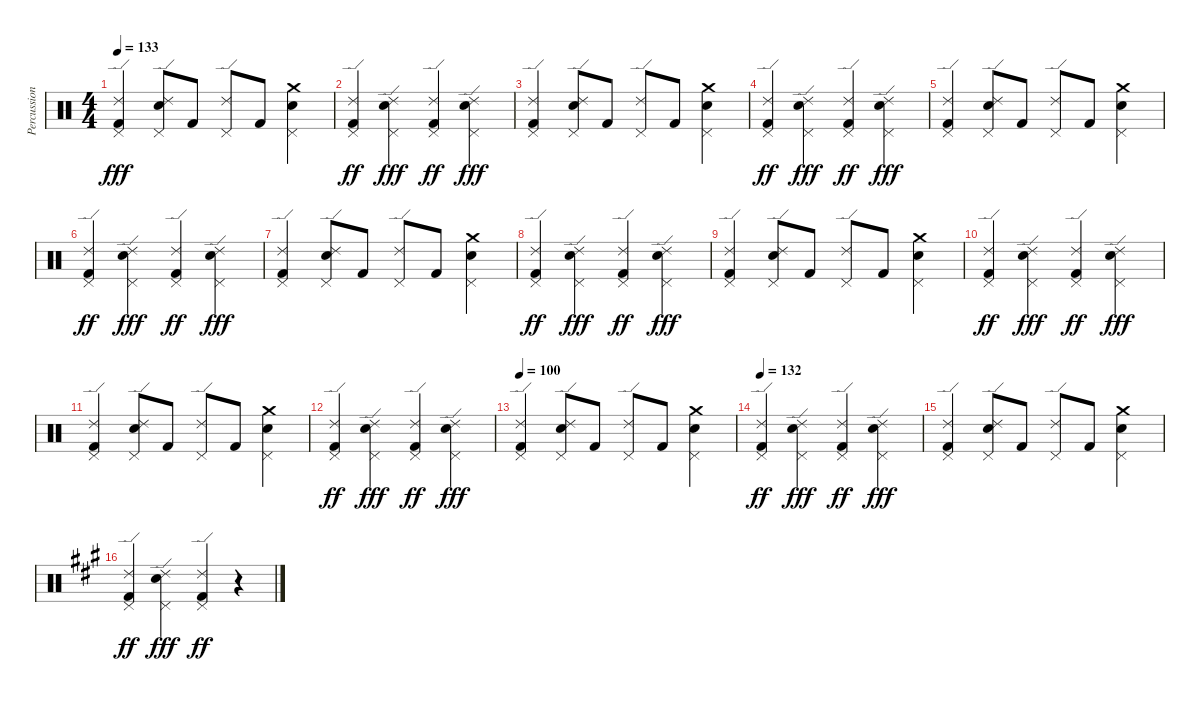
\track ("Percussion" "Percussion") {instrument percussion}
\staff {score}
\articulation defaults
\ts (4 4)
\tempo 133
\clef neutral
\ks c
("Ride (edge) 2" "Pedal Hi-Hat (hit)" "Kick (hit) 2").4{dy fff} ("Ride (edge) 2" "Electric Snare (hit)" "Pedal Hi-Hat (hit)").8 "Kick (hit) 2".8 ("Ride (edge) 2" "Pedal Hi-Hat (hit)").8 "Kick (hit) 2".8 ("Crash medium (hit)" "Electric Snare (hit)" "Pedal Hi-Hat (hit)").4 |
("Ride (edge) 2" "Pedal Hi-Hat (hit)" "Kick (hit) 2").4{dy ff} ("Ride (edge) 2" "Electric Snare (hit)" "Pedal Hi-Hat (hit)").4{dy fff} ("Ride (edge) 2" "Pedal Hi-Hat (hit)" "Kick (hit) 2").4{dy ff} ("Ride (edge) 2" "Electric Snare (hit)" "Pedal Hi-Hat (hit)").4{dy fff} |
("Ride (edge) 2" "Pedal Hi-Hat (hit)" "Kick (hit) 2").4 ("Ride (edge) 2" "Electric Snare (hit)" "Pedal Hi-Hat (hit)").8 "Kick (hit) 2".8 ("Ride (edge) 2" "Pedal Hi-Hat (hit)").8 "Kick (hit) 2".8 ("Crash medium (hit)" "Electric Snare (hit)" "Pedal Hi-Hat (hit)").4 |
("Ride (edge) 2" "Pedal Hi-Hat (hit)" "Kick (hit) 2").4{dy ff} ("Ride (edge) 2" "Electric Snare (hit)" "Pedal Hi-Hat (hit)").4{dy fff} ("Ride (edge) 2" "Pedal Hi-Hat (hit)" "Kick (hit) 2").4{dy ff} ("Ride (edge) 2" "Electric Snare (hit)" "Pedal Hi-Hat (hit)").4{dy fff} |
("Ride (edge) 2" "Pedal Hi-Hat (hit)" "Kick (hit) 2").4 ("Ride (edge) 2" "Electric Snare (hit)" "Pedal Hi-Hat (hit)").8 "Kick (hit) 2".8 ("Ride (edge) 2" "Pedal Hi-Hat (hit)").8 "Kick (hit) 2".8 ("Crash medium (hit)" "Electric Snare (hit)" "Pedal Hi-Hat (hit)").4 |
("Ride (edge) 2" "Pedal Hi-Hat (hit)" "Kick (hit) 2").4{dy ff} ("Ride (edge) 2" "Electric Snare (hit)" "Pedal Hi-Hat (hit)").4{dy fff} ("Ride (edge) 2" "Pedal Hi-Hat (hit)" "Kick (hit) 2").4{dy ff} ("Ride (edge) 2" "Electric Snare (hit)" "Pedal Hi-Hat (hit)").4{dy fff} |
("Ride (edge) 2" "Pedal Hi-Hat (hit)" "Kick (hit) 2").4 ("Ride (edge) 2" "Electric Snare (hit)" "Pedal Hi-Hat (hit)").8 "Kick (hit) 2".8 ("Ride (edge) 2" "Pedal Hi-Hat (hit)").8 "Kick (hit) 2".8 ("Crash medium (hit)" "Electric Snare (hit)" "Pedal Hi-Hat (hit)").4 |
("Ride (edge) 2" "Pedal Hi-Hat (hit)" "Kick (hit) 2").4{dy ff} ("Ride (edge) 2" "Electric Snare (hit)" "Pedal Hi-Hat (hit)").4{dy fff} ("Ride (edge) 2" "Pedal Hi-Hat (hit)" "Kick (hit) 2").4{dy ff} ("Ride (edge) 2" "Electric Snare (hit)" "Pedal Hi-Hat (hit)").4{dy fff} |
("Ride (edge) 2" "Pedal Hi-Hat (hit)" "Kick (hit) 2").4 ("Ride (edge) 2" "Electric Snare (hit)" "Pedal Hi-Hat (hit)").8 "Kick (hit) 2".8 ("Ride (edge) 2" "Pedal Hi-Hat (hit)").8 "Kick (hit) 2".8 ("Crash medium (hit)" "Electric Snare (hit)" "Pedal Hi-Hat (hit)").4 |
("Ride (edge) 2" "Pedal Hi-Hat (hit)" "Kick (hit) 2").4{dy ff} ("Ride (edge) 2" "Electric Snare (hit)" "Pedal Hi-Hat (hit)").4{dy fff} ("Ride (edge) 2" "Pedal Hi-Hat (hit)" "Kick (hit) 2").4{dy ff} ("Ride (edge) 2" "Electric Snare (hit)" "Pedal Hi-Hat (hit)").4{dy fff} |
("Ride (edge) 2" "Pedal Hi-Hat (hit)" "Kick (hit) 2").4 ("Ride (edge) 2" "Electric Snare (hit)" "Pedal Hi-Hat (hit)").8 "Kick (hit) 2".8 ("Ride (edge) 2" "Pedal Hi-Hat (hit)").8 "Kick (hit) 2".8 ("Crash medium (hit)" "Electric Snare (hit)" "Pedal Hi-Hat (hit)").4 |
("Ride (edge) 2" "Pedal Hi-Hat (hit)" "Kick (hit) 2").4{dy ff} ("Ride (edge) 2" "Electric Snare (hit)" "Pedal Hi-Hat (hit)").4{dy fff} ("Ride (edge) 2" "Pedal Hi-Hat (hit)" "Kick (hit) 2").4{dy ff} ("Ride (edge) 2" "Electric Snare (hit)" "Pedal Hi-Hat (hit)").4{dy fff} |
\tempo 100
("Ride (edge) 2" "Pedal Hi-Hat (hit)" "Kick (hit) 2").4 ("Ride (edge) 2" "Electric Snare (hit)" "Pedal Hi-Hat (hit)").8 "Kick (hit) 2".8 ("Ride (edge) 2" "Pedal Hi-Hat (hit)").8 "Kick (hit) 2".8 ("Crash medium (hit)" "Electric Snare (hit)" "Pedal Hi-Hat (hit)").4 |
\tempo 132
("Ride (edge) 2" "Pedal Hi-Hat (hit)" "Kick (hit) 2").4{dy ff} ("Ride (edge) 2" "Electric Snare (hit)" "Pedal Hi-Hat (hit)").4{dy fff} ("Ride (edge) 2" "Pedal Hi-Hat (hit)" "Kick (hit) 2").4{dy ff} ("Ride (edge) 2" "Electric Snare (hit)" "Pedal Hi-Hat (hit)").4{dy fff} |
("Ride (edge) 2" "Pedal Hi-Hat (hit)" "Kick (hit) 2").4 ("Ride (edge) 2" "Electric Snare (hit)" "Pedal Hi-Hat (hit)").8 "Kick (hit) 2".8 ("Ride (edge) 2" "Pedal Hi-Hat (hit)").8 "Kick (hit) 2".8 ("Crash medium (hit)" "Electric Snare (hit)" "Pedal Hi-Hat (hit)").4 |
\ks a
("Ride (edge) 2" "Pedal Hi-Hat (hit)" "Kick (hit) 2").4{dy ff} ("Ride (edge) 2" "Electric Snare (hit)" "Pedal Hi-Hat (hit)").4{dy fff} ("Ride (edge) 2" "Pedal Hi-Hat (hit)" "Kick (hit) 2").4{dy ff} r.4
